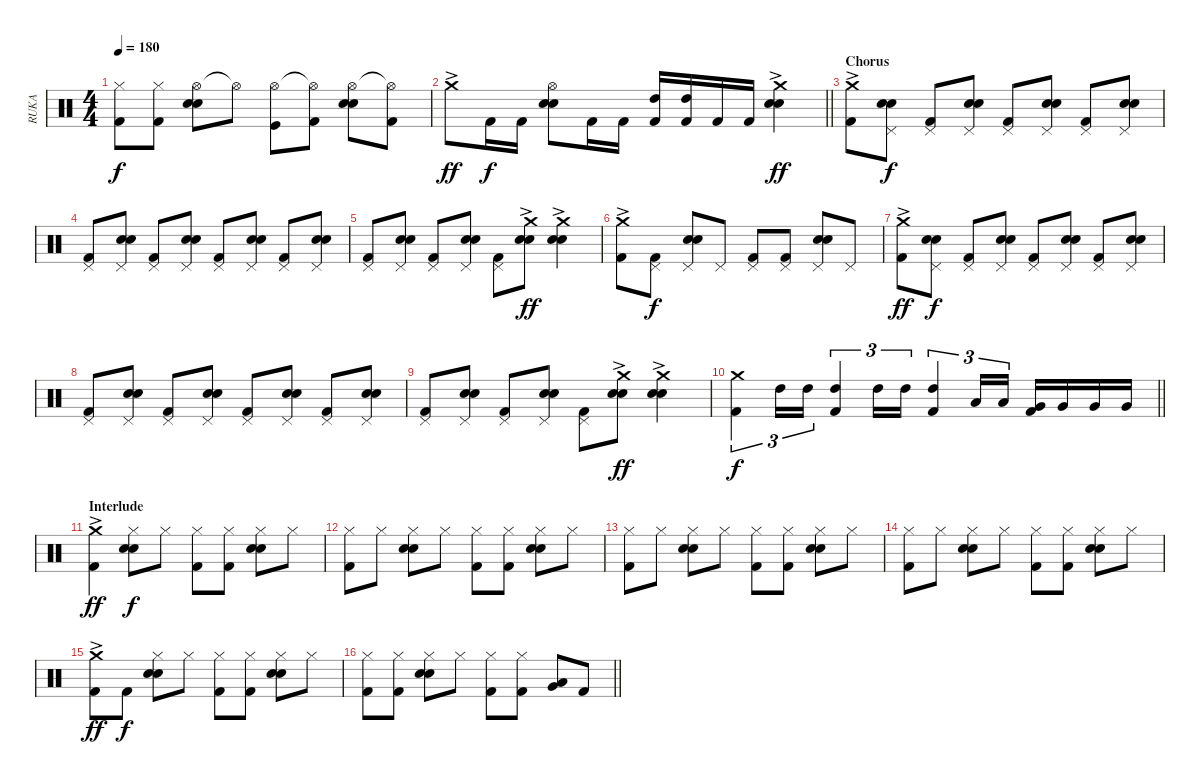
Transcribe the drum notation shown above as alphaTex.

\track ("RUKA" "RUKA") {instrument percussion}
\staff {score}
\articulation defaults
\ts (4 4)
\tempo 180
\clef neutral
\ks c
("Hi-Hat (closed)" "Kick (hit) 2").8{dy f} ("Hi-Hat (closed)" "Kick (hit) 2").8 ("Hi-Hat (open)" "Snare (hit) 2" "Electric Snare (hit)").8 "Hi-Hat (open)"{t}.8 ("Hi-Hat (open)" "Kick (hit)").8 ("Hi-Hat (open)"{t} "Kick (hit) 2").8 ("Hi-Hat (open)" "Snare (hit) 2" "Electric Snare (hit)").8 ("Hi-Hat (open)"{t} "Kick (hit) 2").8 |
\barLineRight lightlight "Crash medium (hit)"{ac}.8{dy ff} "Kick (hit) 2".16{dy f} "Kick (hit) 2".16
("Hi-Hat (open)" "Snare (hit) 2" "Electric Snare (hit)").8 "Kick (hit) 2".16 "Kick (hit) 2".16 ("High Tom (hit)" "Kick (hit) 2").16 ("High Tom (hit)" "Kick (hit) 2").16 "Kick (hit) 2".16 "Kick (hit) 2".16 ("Crash medium (hit)"{ac} "Snare (hit) 2" "Electric Snare (hit)").4{dy ff} |
\section ("" "Chorus")
("Crash medium (hit)"{ac} "Kick (hit) 2").8 ("Pedal Hi-Hat (hit)" "Snare (hit) 2" "Electric Snare (hit)").8{dy f} ("Pedal Hi-Hat (hit)" "Kick (hit) 2").8 ("Pedal Hi-Hat (hit)" "Snare (hit) 2" "Electric Snare (hit)").8 ("Pedal Hi-Hat (hit)" "Kick (hit) 2").8 ("Pedal Hi-Hat (hit)" "Snare (hit) 2" "Electric Snare (hit)").8 ("Pedal Hi-Hat (hit)" "Kick (hit) 2").8 ("Pedal Hi-Hat (hit)" "Snare (hit) 2" "Electric Snare (hit)").8 |
("Pedal Hi-Hat (hit)" "Kick (hit) 2").8 ("Pedal Hi-Hat (hit)" "Snare (hit) 2" "Electric Snare (hit)").8 ("Pedal Hi-Hat (hit)" "Kick (hit) 2").8 ("Pedal Hi-Hat (hit)" "Snare (hit) 2" "Electric Snare (hit)").8 ("Pedal Hi-Hat (hit)" "Kick (hit) 2").8 ("Pedal Hi-Hat (hit)" "Snare (hit) 2" "Electric Snare (hit)").8 ("Pedal Hi-Hat (hit)" "Kick (hit) 2").8 ("Pedal Hi-Hat (hit)" "Snare (hit) 2" "Electric Snare (hit)").8 |
("Pedal Hi-Hat (hit)" "Kick (hit) 2").8 ("Pedal Hi-Hat (hit)" "Snare (hit) 2" "Electric Snare (hit)").8 ("Pedal Hi-Hat (hit)" "Kick (hit) 2").8 ("Pedal Hi-Hat (hit)" "Snare (hit) 2" "Electric Snare (hit)").8 ("Pedal Hi-Hat (hit)" "Kick (hit) 2").8 ("Crash medium (hit)"{ac} "Snare (hit) 2" "Electric Snare (hit)").8{dy ff} ("Crash medium (hit)"{ac} "Snare (hit) 2" "Electric Snare (hit)").4 |
("Crash medium (hit)"{ac} "Kick (hit) 2").8 ("Pedal Hi-Hat (hit)" "Kick (hit) 2").8{dy f} ("Pedal Hi-Hat (hit)" "Snare (hit) 2" "Electric Snare (hit)").8 "Pedal Hi-Hat (hit)".8 ("Pedal Hi-Hat (hit)" "Kick (hit) 2").8 ("Pedal Hi-Hat (hit)" "Kick (hit) 2").8 ("Pedal Hi-Hat (hit)" "Snare (hit) 2" "Electric Snare (hit)").8 "Pedal Hi-Hat (hit)".8 |
("Crash medium (hit)"{ac} "Kick (hit) 2").8{dy ff} ("Pedal Hi-Hat (hit)" "Snare (hit) 2" "Electric Snare (hit)").8{dy f} ("Pedal Hi-Hat (hit)" "Kick (hit) 2").8 ("Pedal Hi-Hat (hit)" "Snare (hit) 2" "Electric Snare (hit)").8 ("Pedal Hi-Hat (hit)" "Kick (hit) 2").8 ("Pedal Hi-Hat (hit)" "Snare (hit) 2" "Electric Snare (hit)").8 ("Pedal Hi-Hat (hit)" "Kick (hit) 2").8 ("Pedal Hi-Hat (hit)" "Snare (hit) 2" "Electric Snare (hit)").8 |
("Pedal Hi-Hat (hit)" "Kick (hit) 2").8 ("Pedal Hi-Hat (hit)" "Snare (hit) 2" "Electric Snare (hit)").8 ("Pedal Hi-Hat (hit)" "Kick (hit) 2").8 ("Pedal Hi-Hat (hit)" "Snare (hit) 2" "Electric Snare (hit)").8 ("Pedal Hi-Hat (hit)" "Kick (hit) 2").8 ("Pedal Hi-Hat (hit)" "Snare (hit) 2" "Electric Snare (hit)").8 ("Pedal Hi-Hat (hit)" "Kick (hit) 2").8 ("Pedal Hi-Hat (hit)" "Snare (hit) 2" "Electric Snare (hit)").8 |
("Pedal Hi-Hat (hit)" "Kick (hit) 2").8 ("Pedal Hi-Hat (hit)" "Snare (hit) 2" "Electric Snare (hit)").8 ("Pedal Hi-Hat (hit)" "Kick (hit) 2").8 ("Pedal Hi-Hat (hit)" "Snare (hit) 2" "Electric Snare (hit)").8 ("Pedal Hi-Hat (hit)" "Kick (hit) 2").8 ("Crash medium (hit)"{ac} "Snare (hit) 2" "Electric Snare (hit)").8{dy ff} ("Crash medium (hit)"{ac} "Snare (hit) 2" "Electric Snare (hit)").4 |
\barLineRight lightlight
("Crash medium (hit)" "Kick (hit) 2").4{tu (3 2) dy f} "High Tom (hit)".16{tu (3 2)} "High Tom (hit)".16{tu (3 2)} ("High Tom (hit)" "Kick (hit) 2").4{tu (3 2)} "High Tom (hit)".16{tu (3 2)} "High Tom (hit)".16{tu (3 2)} ("High Tom (hit)" "Kick (hit) 2").4{tu (3 2)} "Low Tom (hit)".16{tu (3 2)} "Low Tom (hit)".16{tu (3 2)} ("Very Low Tom (hit)" "Kick (hit) 2").16 "Very Low Tom (hit)".16 "Very Low Tom (hit)".16 "Very Low Tom (hit)".16 |
\section ("" "Interlude")
("Crash medium (hit)"{ac} "Kick (hit) 2").4{dy ff} ("Hi-Hat (closed)" "Snare (hit) 2" "Electric Snare (hit)").8{dy f} "Hi-Hat (closed)".8 ("Hi-Hat (closed)" "Kick (hit) 2").8 ("Hi-Hat (closed)" "Kick (hit) 2").8 ("Hi-Hat (closed)" "Snare (hit) 2" "Electric Snare (hit)").8 "Hi-Hat (closed)".8 |
("Hi-Hat (closed)" "Kick (hit) 2").8 "Hi-Hat (closed)".8 ("Hi-Hat (closed)" "Snare (hit) 2" "Electric Snare (hit)").8 "Hi-Hat (closed)".8 ("Hi-Hat (closed)" "Kick (hit) 2").8 ("Hi-Hat (closed)" "Kick (hit) 2").8 ("Hi-Hat (closed)" "Snare (hit) 2" "Electric Snare (hit)").8 "Hi-Hat (closed)".8 |
("Hi-Hat (closed)" "Kick (hit) 2").8 "Hi-Hat (closed)".8 ("Hi-Hat (closed)" "Snare (hit) 2" "Electric Snare (hit)").8 "Hi-Hat (closed)".8 ("Hi-Hat (closed)" "Kick (hit) 2").8 ("Hi-Hat (closed)" "Kick (hit) 2").8 ("Hi-Hat (closed)" "Snare (hit) 2" "Electric Snare (hit)").8 "Hi-Hat (closed)".8 |
("Hi-Hat (closed)" "Kick (hit) 2").8 "Hi-Hat (closed)".8 ("Hi-Hat (closed)" "Snare (hit) 2" "Electric Snare (hit)").8 "Hi-Hat (closed)".8 ("Hi-Hat (closed)" "Kick (hit) 2").8 ("Hi-Hat (closed)" "Kick (hit) 2").8 ("Hi-Hat (closed)" "Snare (hit) 2" "Electric Snare (hit)").8 "Hi-Hat (closed)".8 |
("Crash medium (hit)"{ac} "Kick (hit) 2").8{dy ff} "Kick (hit) 2".8{dy f} ("Hi-Hat (closed)" "Snare (hit) 2" "Electric Snare (hit)").8 "Hi-Hat (closed)".8 ("Hi-Hat (closed)" "Kick (hit) 2").8 ("Hi-Hat (closed)" "Kick (hit) 2").8 ("Hi-Hat (closed)" "Snare (hit) 2" "Electric Snare (hit)").8 "Hi-Hat (closed)".8 |
\barLineRight lightlight
("Hi-Hat (closed)" "Kick (hit) 2").8 ("Hi-Hat (closed)" "Kick (hit) 2").8 ("Hi-Hat (closed)" "Snare (hit) 2" "Electric Snare (hit)").8 "Hi-Hat (closed)".8 ("Hi-Hat (closed)" "Kick (hit) 2").8 ("Hi-Hat (closed)" "Kick (hit) 2").8 ("Low Tom (hit)" "Very Low Tom (hit)").8 "Kick (hit) 2".8
